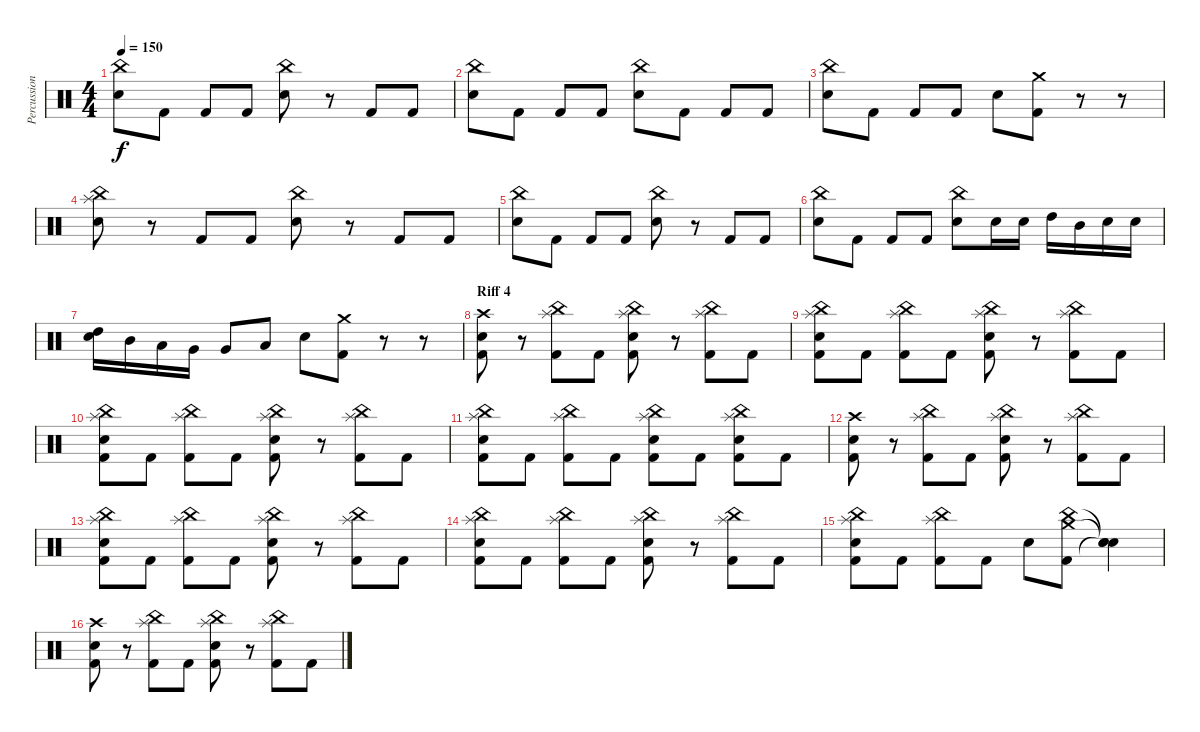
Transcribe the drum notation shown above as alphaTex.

\track ("Percussion" "Percussion") {instrument percussion}
\staff {score}
\articulation defaults
\ts (4 4)
\tempo 150
\clef neutral
\ks c
("China (hit)" "Electric Snare (hit)").8{dy f} "Kick (hit) 2".8 "Kick (hit) 2".8 "Kick (hit) 2".8 ("China (hit)" "Electric Snare (hit)").8 r.8 "Kick (hit) 2".8 "Kick (hit) 2".8 |
("China (hit)" "Electric Snare (hit)").8 "Kick (hit) 2".8 "Kick (hit) 2".8 "Kick (hit) 2".8 ("China (hit)" "Electric Snare (hit)").8 "Kick (hit) 2".8 "Kick (hit) 2".8 "Kick (hit) 2".8 |
("China (hit)" "Electric Snare (hit)").8 "Kick (hit) 2".8 "Kick (hit) 2".8 "Kick (hit) 2".8 "Electric Snare (hit)".8 ("Crash medium (hit)" "Kick (hit) 2").8 r.8 r.8 |
("Splash (hit)" "China (hit)" "Electric Snare (hit)").8 r.8 "Kick (hit) 2".8 "Kick (hit) 2".8 ("China (hit)" "Electric Snare (hit)").8 r.8 "Kick (hit) 2".8 "Kick (hit) 2".8 |
("China (hit)" "Electric Snare (hit)").8 "Kick (hit) 2".8 "Kick (hit) 2".8 "Kick (hit) 2".8 ("China (hit)" "Electric Snare (hit)").8 r.8 "Kick (hit) 2".8 "Kick (hit) 2".8 |
("China (hit)" "Electric Snare (hit)").8 "Kick (hit) 2".8 "Kick (hit) 2".8 "Kick (hit) 2".8 ("China (hit)" "Electric Snare (hit)").8 "Electric Snare (hit)".16 "Electric Snare (hit)".16 "High Tom (hit)".16 "Mid Tom (hit)".16 "Electric Snare (hit)".16 "Electric Snare (hit)".16 |
("High Tom (hit)" "Electric Snare (hit)").16 "Mid Tom (hit)".16 "Low Tom (hit)".16 "Very Low Tom (hit)".16 "Very Low Tom (hit)".8 "Low Floor Tom (hit)".8 "Electric Snare (hit)".8 ("Crash medium (hit)" "Kick (hit) 2").8 r.8 r.8 |
\section ("" "Riff 4")
("Crash high (hit)" "Electric Snare (hit)" "Kick (hit) 2").8 r.8 ("Splash (hit)" "China (hit)" "Kick (hit) 2").8 "Kick (hit) 2".8 ("Splash (hit)" "China (hit)" "Electric Snare (hit)" "Kick (hit) 2").8 r.8 ("Splash (hit)" "China (hit)" "Kick (hit) 2").8 "Kick (hit) 2".8 |
("Splash (hit)" "China (hit)" "Electric Snare (hit)" "Kick (hit) 2").8 "Kick (hit) 2".8 ("Splash (hit)" "China (hit)" "Kick (hit) 2").8 "Kick (hit) 2".8 ("Splash (hit)" "China (hit)" "Electric Snare (hit)" "Kick (hit) 2").8 r.8 ("Splash (hit)" "China (hit)" "Kick (hit) 2").8 "Kick (hit) 2".8 |
("Splash (hit)" "China (hit)" "Electric Snare (hit)" "Kick (hit) 2").8 "Kick (hit) 2".8 ("Splash (hit)" "China (hit)" "Kick (hit) 2").8 "Kick (hit) 2".8 ("Splash (hit)" "China (hit)" "Electric Snare (hit)" "Kick (hit) 2").8 r.8 ("Splash (hit)" "China (hit)" "Kick (hit) 2").8 "Kick (hit) 2".8 |
("Splash (hit)" "China (hit)" "Electric Snare (hit)" "Kick (hit) 2").8 "Kick (hit) 2".8 ("Splash (hit)" "China (hit)" "Kick (hit) 2").8 "Kick (hit) 2".8 ("Splash (hit)" "China (hit)" "Electric Snare (hit)" "Kick (hit) 2").8 "Kick (hit) 2".8 ("Splash (hit)" "China (hit)" "Electric Snare (hit)" "Kick (hit) 2").8 "Kick (hit) 2".8 |
("Crash high (hit)" "Electric Snare (hit)" "Kick (hit) 2").8 r.8 ("Splash (hit)" "China (hit)" "Kick (hit) 2").8 "Kick (hit) 2".8 ("Splash (hit)" "China (hit)" "Electric Snare (hit)" "Kick (hit) 2").8 r.8 ("Splash (hit)" "China (hit)" "Kick (hit) 2").8 "Kick (hit) 2".8 |
("Splash (hit)" "China (hit)" "Electric Snare (hit)" "Kick (hit) 2").8 "Kick (hit) 2".8 ("Splash (hit)" "China (hit)" "Kick (hit) 2").8 "Kick (hit) 2".8 ("Splash (hit)" "China (hit)" "Electric Snare (hit)" "Kick (hit) 2").8 r.8 ("Splash (hit)" "China (hit)" "Kick (hit) 2").8 "Kick (hit) 2".8 |
("Splash (hit)" "China (hit)" "Electric Snare (hit)" "Kick (hit) 2").8 "Kick (hit) 2".8 ("Splash (hit)" "China (hit)" "Kick (hit) 2").8 "Kick (hit) 2".8 ("Splash (hit)" "China (hit)" "Electric Snare (hit)" "Kick (hit) 2").8 r.8 ("Splash (hit)" "China (hit)" "Kick (hit) 2").8 "Kick (hit) 2".8 |
("Splash (hit)" "China (hit)" "Electric Snare (hit)" "Kick (hit) 2").8 "Kick (hit) 2".8 ("Splash (hit)" "China (hit)" "Kick (hit) 2").8 "Kick (hit) 2".8 "Electric Snare (hit)".8 ("China (hit)" "Crash medium (hit)" "Kick (hit) 2").8 ("Snare (hit)"{t} "Snare (hit)"{t} "Snare (hit)"{t}).4 |
("Crash high (hit)" "Electric Snare (hit)" "Kick (hit) 2").8 r.8 ("Splash (hit)" "China (hit)" "Kick (hit) 2").8 "Kick (hit) 2".8 ("Splash (hit)" "China (hit)" "Electric Snare (hit)" "Kick (hit) 2").8 r.8 ("Splash (hit)" "China (hit)" "Kick (hit) 2").8 "Kick (hit) 2".8
